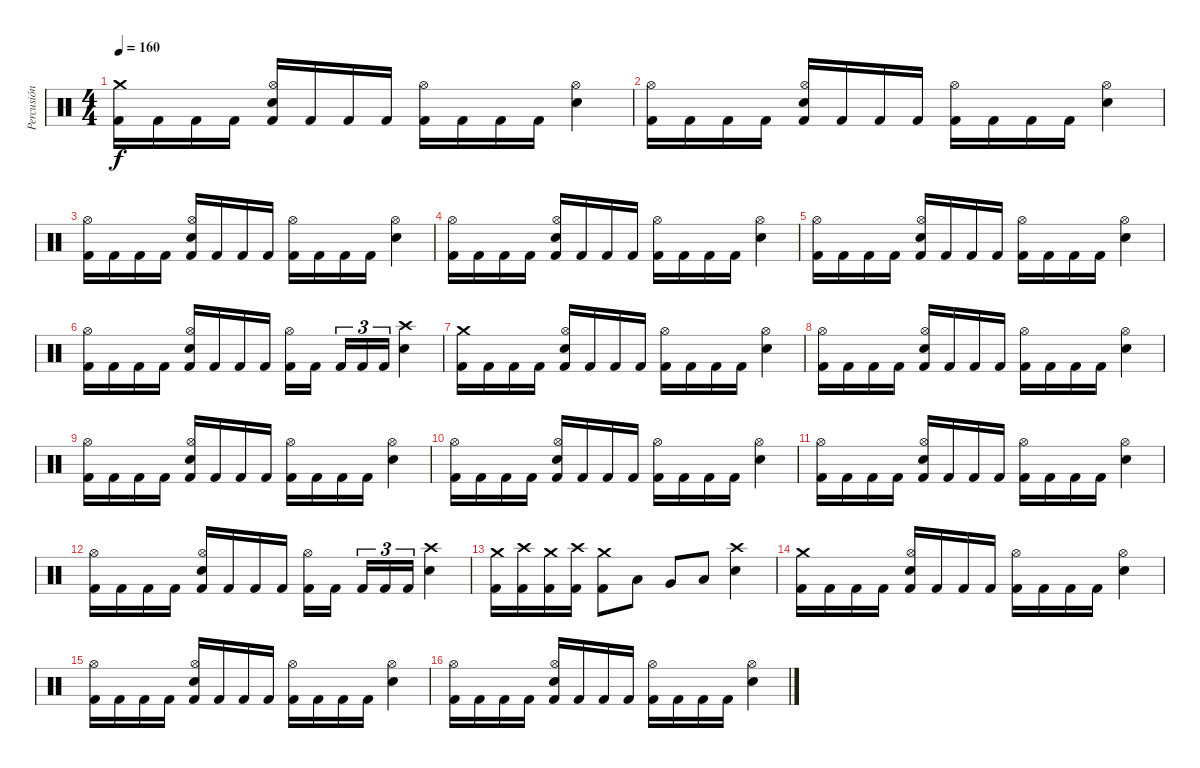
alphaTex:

\track ("Percusión" "Percusión") {instrument percussion}
\staff {score}
\articulation defaults
\ts (4 4)
\tempo 160
\clef neutral
\ks c
("Crash medium (hit)" "Kick (hit) 2").16{dy f} "Kick (hit) 2".16 "Kick (hit) 2".16 "Kick (hit) 2".16 ("Hi-Hat (open)" "Electric Snare (hit)" "Kick (hit) 2").16 "Kick (hit) 2".16 "Kick (hit) 2".16 "Kick (hit) 2".16 ("Hi-Hat (open)" "Kick (hit) 2").16 "Kick (hit) 2".16 "Kick (hit) 2".16 "Kick (hit) 2".16 ("Hi-Hat (open)" "Electric Snare (hit)").4 |
("Hi-Hat (open)" "Kick (hit) 2").16 "Kick (hit) 2".16 "Kick (hit) 2".16 "Kick (hit) 2".16 ("Hi-Hat (open)" "Electric Snare (hit)" "Kick (hit) 2").16 "Kick (hit) 2".16 "Kick (hit) 2".16 "Kick (hit) 2".16 ("Hi-Hat (open)" "Kick (hit) 2").16 "Kick (hit) 2".16 "Kick (hit) 2".16 "Kick (hit) 2".16 ("Hi-Hat (open)" "Electric Snare (hit)").4 |
("Hi-Hat (open)" "Kick (hit) 2").16 "Kick (hit) 2".16 "Kick (hit) 2".16 "Kick (hit) 2".16 ("Hi-Hat (open)" "Electric Snare (hit)" "Kick (hit) 2").16 "Kick (hit) 2".16 "Kick (hit) 2".16 "Kick (hit) 2".16 ("Hi-Hat (open)" "Kick (hit) 2").16 "Kick (hit) 2".16 "Kick (hit) 2".16 "Kick (hit) 2".16 ("Hi-Hat (open)" "Electric Snare (hit)").4 |
("Hi-Hat (open)" "Kick (hit) 2").16 "Kick (hit) 2".16 "Kick (hit) 2".16 "Kick (hit) 2".16 ("Hi-Hat (open)" "Electric Snare (hit)" "Kick (hit) 2").16 "Kick (hit) 2".16 "Kick (hit) 2".16 "Kick (hit) 2".16 ("Hi-Hat (open)" "Kick (hit) 2").16 "Kick (hit) 2".16 "Kick (hit) 2".16 "Kick (hit) 2".16 ("Hi-Hat (open)" "Electric Snare (hit)").4 |
("Hi-Hat (open)" "Kick (hit) 2").16 "Kick (hit) 2".16 "Kick (hit) 2".16 "Kick (hit) 2".16 ("Hi-Hat (open)" "Electric Snare (hit)" "Kick (hit) 2").16 "Kick (hit) 2".16 "Kick (hit) 2".16 "Kick (hit) 2".16 ("Hi-Hat (open)" "Kick (hit) 2").16 "Kick (hit) 2".16 "Kick (hit) 2".16 "Kick (hit) 2".16 ("Hi-Hat (open)" "Electric Snare (hit)").4 |
("Hi-Hat (open)" "Kick (hit) 2").16 "Kick (hit) 2".16 "Kick (hit) 2".16 "Kick (hit) 2".16 ("Hi-Hat (open)" "Electric Snare (hit)" "Kick (hit) 2").16 "Kick (hit) 2".16 "Kick (hit) 2".16 "Kick (hit) 2".16 ("Hi-Hat (open)" "Kick (hit) 2").16 "Kick (hit) 2".16{beam splitsecondary} "Kick (hit) 2".16{tu (3 2)} "Kick (hit) 2".16{tu (3 2)} "Kick (hit) 2".16{tu (3 2)} ("Crash high (hit)" "Electric Snare (hit)").4 |
("Crash medium (hit)" "Kick (hit) 2").16 "Kick (hit) 2".16 "Kick (hit) 2".16 "Kick (hit) 2".16 ("Hi-Hat (open)" "Electric Snare (hit)" "Kick (hit) 2").16 "Kick (hit) 2".16 "Kick (hit) 2".16 "Kick (hit) 2".16 ("Hi-Hat (open)" "Kick (hit) 2").16 "Kick (hit) 2".16 "Kick (hit) 2".16 "Kick (hit) 2".16 ("Hi-Hat (open)" "Electric Snare (hit)").4 |
("Hi-Hat (open)" "Kick (hit) 2").16 "Kick (hit) 2".16 "Kick (hit) 2".16 "Kick (hit) 2".16 ("Hi-Hat (open)" "Electric Snare (hit)" "Kick (hit) 2").16 "Kick (hit) 2".16 "Kick (hit) 2".16 "Kick (hit) 2".16 ("Hi-Hat (open)" "Kick (hit) 2").16 "Kick (hit) 2".16 "Kick (hit) 2".16 "Kick (hit) 2".16 ("Hi-Hat (open)" "Electric Snare (hit)").4 |
("Hi-Hat (open)" "Kick (hit) 2").16 "Kick (hit) 2".16 "Kick (hit) 2".16 "Kick (hit) 2".16 ("Hi-Hat (open)" "Electric Snare (hit)" "Kick (hit) 2").16 "Kick (hit) 2".16 "Kick (hit) 2".16 "Kick (hit) 2".16 ("Hi-Hat (open)" "Kick (hit) 2").16 "Kick (hit) 2".16 "Kick (hit) 2".16 "Kick (hit) 2".16 ("Hi-Hat (open)" "Electric Snare (hit)").4 |
("Hi-Hat (open)" "Kick (hit) 2").16 "Kick (hit) 2".16 "Kick (hit) 2".16 "Kick (hit) 2".16 ("Hi-Hat (open)" "Electric Snare (hit)" "Kick (hit) 2").16 "Kick (hit) 2".16 "Kick (hit) 2".16 "Kick (hit) 2".16 ("Hi-Hat (open)" "Kick (hit) 2").16 "Kick (hit) 2".16 "Kick (hit) 2".16 "Kick (hit) 2".16 ("Hi-Hat (open)" "Electric Snare (hit)").4 |
("Hi-Hat (open)" "Kick (hit) 2").16 "Kick (hit) 2".16 "Kick (hit) 2".16 "Kick (hit) 2".16 ("Hi-Hat (open)" "Electric Snare (hit)" "Kick (hit) 2").16 "Kick (hit) 2".16 "Kick (hit) 2".16 "Kick (hit) 2".16 ("Hi-Hat (open)" "Kick (hit) 2").16 "Kick (hit) 2".16 "Kick (hit) 2".16 "Kick (hit) 2".16 ("Hi-Hat (open)" "Electric Snare (hit)").4 |
("Hi-Hat (open)" "Kick (hit) 2").16 "Kick (hit) 2".16 "Kick (hit) 2".16 "Kick (hit) 2".16 ("Hi-Hat (open)" "Electric Snare (hit)" "Kick (hit) 2").16 "Kick (hit) 2".16 "Kick (hit) 2".16 "Kick (hit) 2".16 ("Hi-Hat (open)" "Kick (hit) 2").16 "Kick (hit) 2".16{beam splitsecondary} "Kick (hit) 2".16{tu (3 2)} "Kick (hit) 2".16{tu (3 2)} "Kick (hit) 2".16{tu (3 2)} ("Crash high (hit)" "Electric Snare (hit)").4 |
("Crash medium (hit)" "Kick (hit) 2").16 ("Crash high (hit)" "Kick (hit) 2").16 ("Crash medium (hit)" "Kick (hit) 2").16 ("Crash high (hit)" "Kick (hit) 2").16 ("Crash medium (hit)" "Kick (hit) 2").8 "Low Tom (hit)".8 "Very Low Tom (hit)".8 "Low Floor Tom (hit)".8 ("Crash high (hit)" "Electric Snare (hit)").4 |
("Crash medium (hit)" "Kick (hit) 2").16 "Kick (hit) 2".16 "Kick (hit) 2".16 "Kick (hit) 2".16 ("Hi-Hat (open)" "Electric Snare (hit)" "Kick (hit) 2").16 "Kick (hit) 2".16 "Kick (hit) 2".16 "Kick (hit) 2".16 ("Hi-Hat (open)" "Kick (hit) 2").16 "Kick (hit) 2".16 "Kick (hit) 2".16 "Kick (hit) 2".16 ("Hi-Hat (open)" "Electric Snare (hit)").4 |
("Hi-Hat (open)" "Kick (hit) 2").16 "Kick (hit) 2".16 "Kick (hit) 2".16 "Kick (hit) 2".16 ("Hi-Hat (open)" "Electric Snare (hit)" "Kick (hit) 2").16 "Kick (hit) 2".16 "Kick (hit) 2".16 "Kick (hit) 2".16 ("Hi-Hat (open)" "Kick (hit) 2").16 "Kick (hit) 2".16 "Kick (hit) 2".16 "Kick (hit) 2".16 ("Hi-Hat (open)" "Electric Snare (hit)").4 |
("Hi-Hat (open)" "Kick (hit) 2").16 "Kick (hit) 2".16 "Kick (hit) 2".16 "Kick (hit) 2".16 ("Hi-Hat (open)" "Electric Snare (hit)" "Kick (hit) 2").16 "Kick (hit) 2".16 "Kick (hit) 2".16 "Kick (hit) 2".16 ("Hi-Hat (open)" "Kick (hit) 2").16 "Kick (hit) 2".16 "Kick (hit) 2".16 "Kick (hit) 2".16 ("Hi-Hat (open)" "Electric Snare (hit)").4
